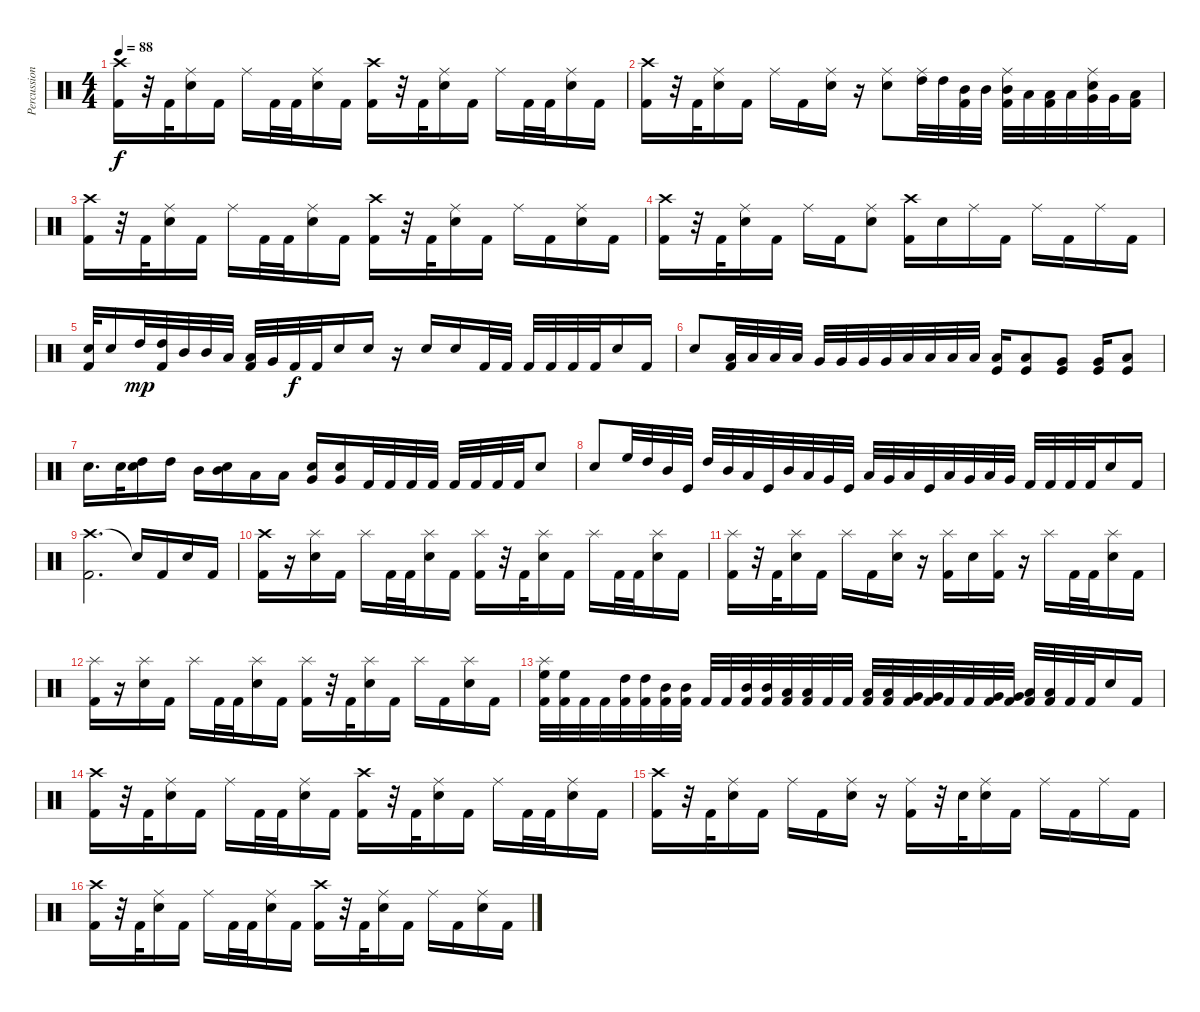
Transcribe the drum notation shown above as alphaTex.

\track ("Percussion" "Percussion") {instrument percussion}
\staff {score}
\articulation defaults
\ts (4 4)
\tempo 88
\clef neutral
\ks c
("Crash high (hit)" "Kick (hit) 2").16{dy f} r.32 "Kick (hit) 2".32 ("Ride (middle)" "Snare (hit) 2").16 "Kick (hit) 2".16 "Ride (middle)".16 "Kick (hit) 2".32 "Kick (hit) 2".32 ("Ride (middle)" "Snare (hit) 2").16 "Kick (hit) 2".16 ("Crash high (hit)" "Kick (hit) 2").16 r.32 "Kick (hit) 2".32 ("Ride (middle)" "Snare (hit) 2").16 "Kick (hit) 2".16 "Ride (middle)".16 "Kick (hit) 2".32 "Kick (hit) 2".32 ("Ride (middle)" "Snare (hit) 2").16 "Kick (hit) 2".16 |
("Crash high (hit)" "Kick (hit) 2").16 r.32 "Kick (hit) 2".32 ("Ride (middle)" "Snare (hit) 2").16 "Kick (hit) 2".16 "Ride (middle)".16 "Kick (hit) 2".16 ("Ride (middle)" "Snare (hit) 2").16 r.16 ("Ride (middle)" "Snare (hit) 2").8 ("Ride (middle)" "High Tom (hit)").32 "High Tom (hit)".32 ("Mid Tom (hit)" "Kick (hit) 2").32 "Mid Tom (hit)".32 ("Ride (middle)" "Mid Tom (hit)" "Kick (hit) 2").32 "Low Tom (hit)".32 ("Low Tom (hit)" "Kick (hit) 2").32 "Low Tom (hit)".32 ("Ride (middle)" "Very Low Tom (hit)" "Snare (hit) 2").32 "Very Low Tom (hit)".32 ("Low Floor Tom (hit)" "Kick (hit) 2").16 |
("Crash high (hit)" "Kick (hit) 2").16 r.32 "Kick (hit) 2".32 ("Ride (middle)" "Snare (hit) 2").16 "Kick (hit) 2".16 "Ride (middle)".16 "Kick (hit) 2".32 "Kick (hit) 2".32 ("Ride (middle)" "Snare (hit) 2").16 "Kick (hit) 2".16 ("Crash high (hit)" "Kick (hit) 2").16 r.32 "Kick (hit) 2".32 ("Ride (middle)" "Snare (hit) 2").16 "Kick (hit) 2".16 "Ride (middle)".16 "Kick (hit) 2".16 ("Ride (middle)" "Snare (hit) 2").16 "Kick (hit) 2".16 |
("Crash high (hit)" "Kick (hit) 2").16 r.32 "Kick (hit) 2".32 ("Ride (middle)" "Snare (hit) 2").16 "Kick (hit) 2".16 "Ride (middle)".16 "Kick (hit) 2".16 ("Ride (middle)" "Snare (hit) 2").8 ("Crash high (hit)" "Kick (hit) 2").16 "Snare (hit) 2".16 "Ride (middle)".16 "Kick (hit) 2".16 "Ride (middle)".16 "Kick (hit) 2".16 "Ride (middle)".16 "Kick (hit) 2".16 |
("Snare (hit) 2" "Kick (hit) 2").32 "Snare (hit) 2".16 "High Tom (hit)".32{dy mp} ("High Tom (hit)" "Kick (hit) 2").32 "Mid Tom (hit)".32 "Mid Tom (hit)".32 "Low Tom (hit)".32 ("Low Tom (hit)" "Kick (hit) 2").32 "Very Low Tom (hit)".32 "Kick (hit) 2".32{dy f} "Kick (hit) 2".32 "Snare (hit) 2".16 "Snare (hit) 2".16 r.16 "Snare (hit) 2".16 "Snare (hit) 2".16 "Kick (hit) 2".32 "Kick (hit) 2".32 "Kick (hit) 2".32 "Kick (hit) 2".32 "Kick (hit) 2".32 "Kick (hit) 2".32 "Snare (hit) 2".16 "Kick (hit) 2".16 |
"Snare (hit) 2".8 ("Low Tom (hit)" "Kick (hit) 2").32 "Low Tom (hit)".32 "Low Tom (hit)".32 "Low Tom (hit)".32 "Very Low Tom (hit)".32 "Very Low Tom (hit)".32 "Very Low Tom (hit)".32 "Very Low Tom (hit)".32 "Low Floor Tom (hit)".32 "Low Floor Tom (hit)".32 "Low Floor Tom (hit)".32 "Low Floor Tom (hit)".32 ("Low Tom (hit)" "Kick (hit)").16 ("Low Tom (hit)" "Kick (hit)").8 ("Very Low Tom (hit)" "Kick (hit)").8 ("Very Low Tom (hit)" "Kick (hit)").16 ("Low Floor Tom (hit)" "Kick (hit)").8 |
"Snare (hit) 2".16{d} "Snare (hit) 2".32 ("High Tom (hit)" "Snare (hit) 2").16 "High Tom (hit)".16 "Mid Tom (hit)".16 ("Mid Tom (hit)" "Snare (hit) 2").16 "Low Tom (hit)".16 "Low Tom (hit)".16 ("Very Low Tom (hit)" "Snare (hit) 2").16 ("Very Low Tom (hit)" "Snare (hit) 2").16 "Kick (hit) 2".32 "Kick (hit) 2".32 "Kick (hit) 2".32 "Kick (hit) 2".32 "Kick (hit) 2".32 "Kick (hit) 2".32 "Kick (hit) 2".32 "Kick (hit) 2".32 "Snare (hit) 2".8 |
"Snare (hit) 2".8 "High Floor Tom (hit)".32 "High Tom (hit)".32 "Mid Tom (hit)".32 "Kick (hit)".32 "High Tom (hit)".32 "Mid Tom (hit)".32 "Low Tom (hit)".32 "Kick (hit)".32 "Mid Tom (hit)".32 "Low Tom (hit)".32 "Very Low Tom (hit)".32 "Kick (hit)".32 "Low Tom (hit)".32 "Very Low Tom (hit)".32 "Low Floor Tom (hit)".32 "Kick (hit)".32 "Low Tom (hit)".32 "Very Low Tom (hit)".32 "Low Floor Tom (hit)".32 "Very Low Tom (hit)".32 "Kick (hit) 2".32 "Kick (hit) 2".32 "Kick (hit) 2".32 "Kick (hit) 2".32 "Snare (hit) 2".16 "Kick (hit) 2".16 |
("Crash high (hit)" "Kick (hit) 2").2{d} "Snare (hit)"{t}.16 "Kick (hit) 2".16 "Snare (hit) 2".16 "Kick (hit) 2".16 |
("Crash high (hit)" "Kick (hit) 2").16 r.16 ("Splash (hit)" "Snare (hit) 2").16 "Kick (hit) 2".16 "Splash (hit)".16 "Kick (hit) 2".32 "Kick (hit) 2".32 ("Splash (hit)" "Snare (hit) 2").16 "Kick (hit) 2".16 ("Splash (hit)" "Kick (hit) 2").16 r.32 "Kick (hit) 2".32 ("Splash (hit)" "Snare (hit) 2").16 "Kick (hit) 2".16 "Splash (hit)".16 "Kick (hit) 2".32 "Kick (hit) 2".32 ("Splash (hit)" "Snare (hit) 2").16 "Kick (hit) 2".16 |
("Splash (hit)" "Kick (hit) 2").16 r.32 "Kick (hit) 2".32 ("Splash (hit)" "Snare (hit) 2").16 "Kick (hit) 2".16 "Splash (hit)".16 "Kick (hit) 2".16 ("Splash (hit)" "Snare (hit) 2").16 r.16 ("Splash (hit)" "Kick (hit) 2").16 "Snare (hit) 2".16 ("Splash (hit)" "Kick (hit) 2").16 r.16 "Splash (hit)".16 "Kick (hit) 2".32 "Kick (hit) 2".32 ("Splash (hit)" "Snare (hit) 2").16 "Kick (hit) 2".16 |
("Splash (hit)" "Kick (hit) 2").16 r.16 ("Splash (hit)" "Snare (hit) 2").16 "Kick (hit) 2".16 "Splash (hit)".16 "Kick (hit) 2".32 "Kick (hit) 2".32 ("Splash (hit)" "Snare (hit) 2").16 "Kick (hit) 2".16 ("Splash (hit)" "Kick (hit) 2").16 r.32 "Kick (hit) 2".32 ("Splash (hit)" "Snare (hit) 2").16 "Kick (hit) 2".16 "Splash (hit)".16 "Kick (hit) 2".16 ("Splash (hit)" "Snare (hit) 2").16 "Kick (hit) 2".16 |
("Splash (hit)" "High Floor Tom (hit)" "Kick (hit) 2").32 ("High Floor Tom (hit)" "Kick (hit) 2").32 "Kick (hit) 2".32 "Kick (hit) 2".32 ("High Tom (hit)" "Kick (hit) 2").32 ("High Tom (hit)" "Kick (hit) 2").32 ("Mid Tom (hit)" "Kick (hit) 2").32 ("Mid Tom (hit)" "Kick (hit) 2").32 "Kick (hit) 2".32 "Kick (hit) 2".32 ("Mid Tom (hit)" "Kick (hit) 2").32 ("Mid Tom (hit)" "Kick (hit) 2").32 ("Low Tom (hit)" "Kick (hit) 2").32 ("Low Tom (hit)" "Kick (hit) 2").32 "Kick (hit) 2".32 "Kick (hit) 2".32 ("Low Tom (hit)" "Kick (hit) 2").32 ("Low Tom (hit)" "Kick (hit) 2").32 ("Very Low Tom (hit)" "Kick (hit) 2").32 ("Very Low Tom (hit)" "Kick (hit) 2").32 "Kick (hit) 2".32 "Kick (hit) 2".32 ("Very Low Tom (hit)" "Kick (hit) 2").32 ("Very Low Tom (hit)" "Kick (hit) 2").32 ("Low Floor Tom (hit)" "Kick (hit) 2").32 ("Low Floor Tom (hit)" "Kick (hit) 2").32 "Kick (hit) 2".32 "Kick (hit) 2".32 "Snare (hit) 2".16 "Kick (hit) 2".16 |
("Crash high (hit)" "Kick (hit) 2").16 r.32 "Kick (hit) 2".32 ("Ride (middle)" "Snare (hit) 2").16 "Kick (hit) 2".16 "Ride (middle)".16 "Kick (hit) 2".32 "Kick (hit) 2".32 ("Ride (middle)" "Snare (hit) 2").16 "Kick (hit) 2".16 ("Crash high (hit)" "Kick (hit) 2").16 r.32 "Kick (hit) 2".32 ("Ride (middle)" "Snare (hit) 2").16 "Kick (hit) 2".16 "Ride (middle)".16 "Kick (hit) 2".32 "Kick (hit) 2".32 ("Ride (middle)" "Snare (hit) 2").16 "Kick (hit) 2".16 |
("Crash high (hit)" "Kick (hit) 2").16 r.32 "Kick (hit) 2".32 ("Ride (middle)" "Snare (hit) 2").16 "Kick (hit) 2".16 "Ride (middle)".16 "Kick (hit) 2".16 ("Ride (middle)" "Snare (hit) 2").16 r.16 ("Ride (middle)" "Kick (hit) 2").16 r.32 "Snare (hit) 2".32 ("Ride (middle)" "Snare (hit) 2").16 "Kick (hit) 2".16 "Ride (middle)".16 "Kick (hit) 2".16 "Ride (middle)".16 "Kick (hit) 2".16 |
("Crash high (hit)" "Kick (hit) 2").16 r.32 "Kick (hit) 2".32 ("Ride (middle)" "Snare (hit) 2").16 "Kick (hit) 2".16 "Ride (middle)".16 "Kick (hit) 2".32 "Kick (hit) 2".32 ("Ride (middle)" "Snare (hit) 2").16 "Kick (hit) 2".16 ("Crash high (hit)" "Kick (hit) 2").16 r.32 "Kick (hit) 2".32 ("Ride (middle)" "Snare (hit) 2").16 "Kick (hit) 2".16 "Ride (middle)".16 "Kick (hit) 2".16 ("Ride (middle)" "Snare (hit) 2").16 "Kick (hit) 2".16
